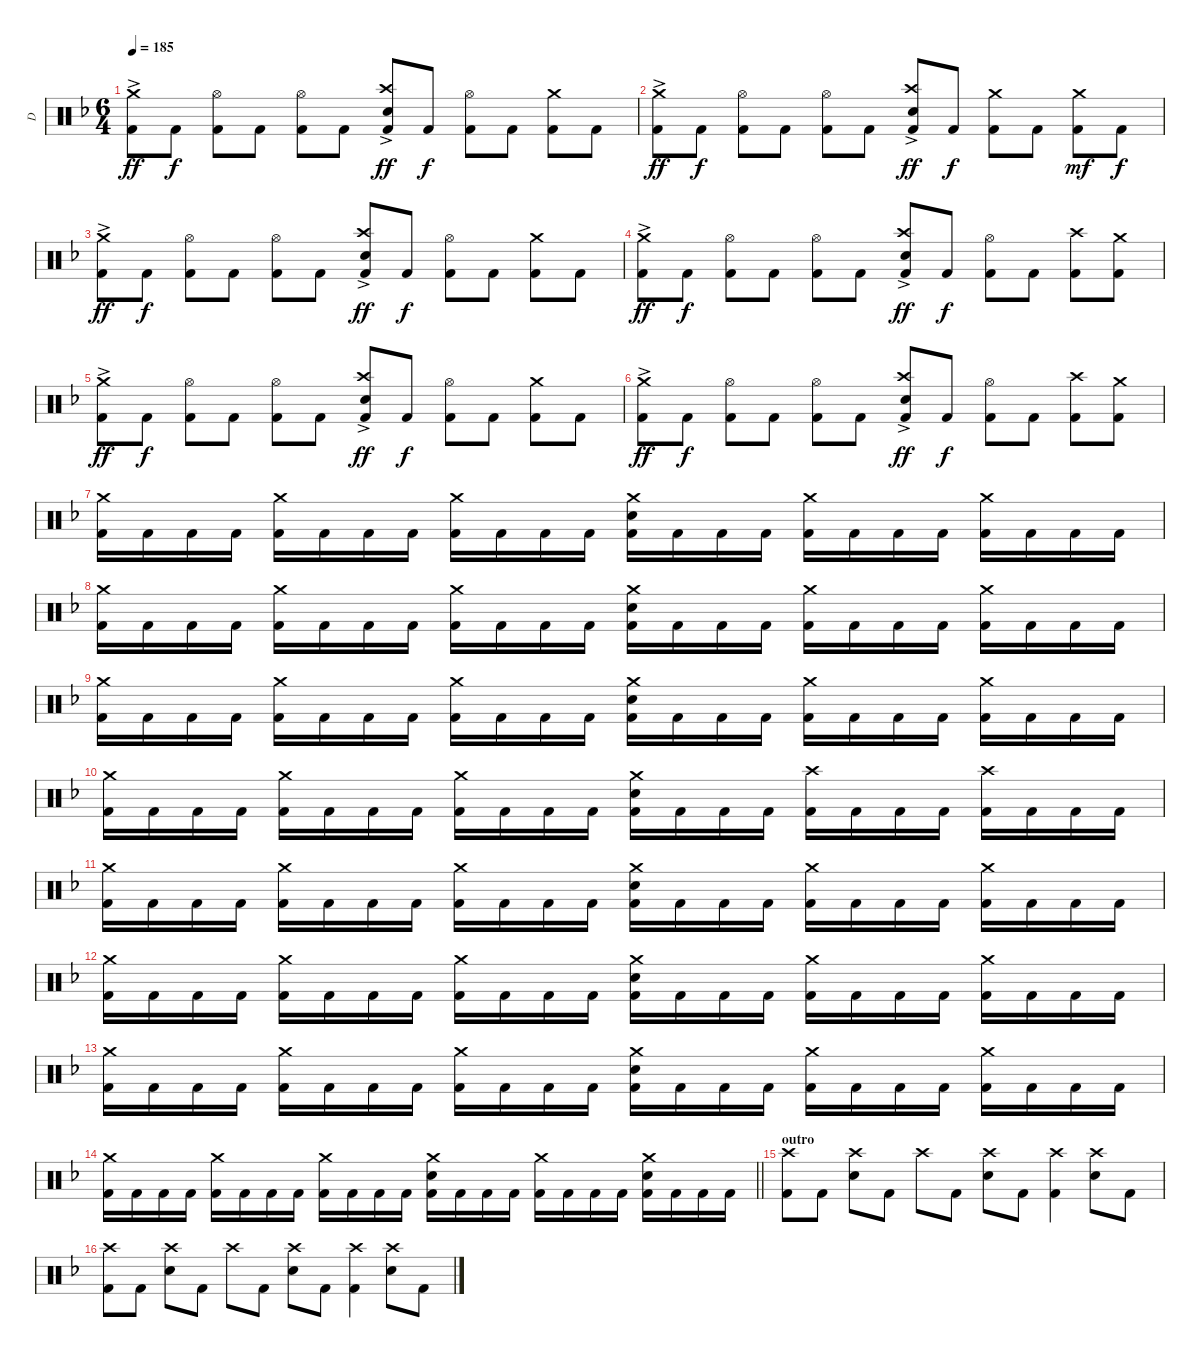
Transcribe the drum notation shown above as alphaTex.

\track ("D" "D") {instrument percussion}
\staff {score}
\articulation defaults
\ts (6 4)
\tempo 185
\clef neutral
\ks dminor
("Crash medium (hit)"{ac} "Kick (hit) 2").8{dy ff} "Kick (hit) 2".8{dy f} ("Hi-Hat (open)" "Kick (hit) 2").8 "Kick (hit) 2".8 ("Hi-Hat (open)" "Kick (hit) 2").8 "Kick (hit) 2".8 ("Crash high (hit)"{ac} "Snare (hit) 2" "Kick (hit) 2").8{dy ff} "Kick (hit) 2".8{dy f} ("Hi-Hat (open)" "Kick (hit) 2").8 "Kick (hit) 2".8 ("Crash medium (hit)" "Kick (hit) 2").8 "Kick (hit) 2".8 |
("Crash medium (hit)"{ac} "Kick (hit) 2").8{dy ff} "Kick (hit) 2".8{dy f} ("Hi-Hat (open)" "Kick (hit) 2").8 "Kick (hit) 2".8 ("Hi-Hat (open)" "Kick (hit) 2").8 "Kick (hit) 2".8 ("Crash high (hit)"{ac} "Snare (hit) 2" "Kick (hit) 2").8{dy ff} "Kick (hit) 2".8{dy f} ("Crash medium (hit)" "Kick (hit) 2").8 "Kick (hit) 2".8 ("Crash medium (hit)" "Kick (hit) 2").8{dy mf} "Kick (hit) 2".8{dy f} |
("Crash medium (hit)"{ac} "Kick (hit) 2").8{dy ff} "Kick (hit) 2".8{dy f} ("Hi-Hat (open)" "Kick (hit) 2").8 "Kick (hit) 2".8 ("Hi-Hat (open)" "Kick (hit) 2").8 "Kick (hit) 2".8 ("Crash high (hit)"{ac} "Snare (hit) 2" "Kick (hit) 2").8{dy ff} "Kick (hit) 2".8{dy f} ("Hi-Hat (open)" "Kick (hit) 2").8 "Kick (hit) 2".8 ("Crash medium (hit)" "Kick (hit) 2").8 "Kick (hit) 2".8 |
("Crash medium (hit)"{ac} "Kick (hit) 2").8{dy ff} "Kick (hit) 2".8{dy f} ("Hi-Hat (open)" "Kick (hit) 2").8 "Kick (hit) 2".8 ("Hi-Hat (open)" "Kick (hit) 2").8 "Kick (hit) 2".8 ("Crash high (hit)"{ac} "Snare (hit) 2" "Kick (hit) 2").8{dy ff} "Kick (hit) 2".8{dy f} ("Hi-Hat (open)" "Kick (hit) 2").8 "Kick (hit) 2".8 ("Crash high (hit)" "Kick (hit) 2").8 ("Crash medium (hit)" "Kick (hit) 2").8 |
("Crash medium (hit)"{ac} "Kick (hit) 2").8{dy ff} "Kick (hit) 2".8{dy f} ("Hi-Hat (open)" "Kick (hit) 2").8 "Kick (hit) 2".8 ("Hi-Hat (open)" "Kick (hit) 2").8 "Kick (hit) 2".8 ("Crash high (hit)"{ac} "Snare (hit) 2" "Kick (hit) 2").8{dy ff} "Kick (hit) 2".8{dy f} ("Hi-Hat (open)" "Kick (hit) 2").8 "Kick (hit) 2".8 ("Crash medium (hit)" "Kick (hit) 2").8 "Kick (hit) 2".8 |
("Crash medium (hit)"{ac} "Kick (hit) 2").8{dy ff} "Kick (hit) 2".8{dy f} ("Hi-Hat (open)" "Kick (hit) 2").8 "Kick (hit) 2".8 ("Hi-Hat (open)" "Kick (hit) 2").8 "Kick (hit) 2".8 ("Crash high (hit)"{ac} "Snare (hit) 2" "Kick (hit) 2").8{dy ff} "Kick (hit) 2".8{dy f} ("Hi-Hat (open)" "Kick (hit) 2").8 "Kick (hit) 2".8 ("Crash high (hit)" "Kick (hit) 2").8 ("Crash medium (hit)" "Kick (hit) 2").8 |
("Crash medium (hit)" "Kick (hit) 2").16 "Kick (hit) 2".16 "Kick (hit) 2".16 "Kick (hit) 2".16 ("Crash medium (hit)" "Kick (hit) 2").16 "Kick (hit) 2".16 "Kick (hit) 2".16 "Kick (hit) 2".16 ("Crash medium (hit)" "Kick (hit) 2").16 "Kick (hit) 2".16 "Kick (hit) 2".16 "Kick (hit) 2".16 ("Crash medium (hit)" "Snare (hit) 2" "Kick (hit) 2").16 "Kick (hit) 2".16 "Kick (hit) 2".16 "Kick (hit) 2".16 ("Crash medium (hit)" "Kick (hit) 2").16 "Kick (hit) 2".16 "Kick (hit) 2".16 "Kick (hit) 2".16 ("Crash medium (hit)" "Kick (hit) 2").16 "Kick (hit) 2".16 "Kick (hit) 2".16 "Kick (hit) 2".16 |
("Crash medium (hit)" "Kick (hit) 2").16 "Kick (hit) 2".16 "Kick (hit) 2".16 "Kick (hit) 2".16 ("Crash medium (hit)" "Kick (hit) 2").16 "Kick (hit) 2".16 "Kick (hit) 2".16 "Kick (hit) 2".16 ("Crash medium (hit)" "Kick (hit) 2").16 "Kick (hit) 2".16 "Kick (hit) 2".16 "Kick (hit) 2".16 ("Crash medium (hit)" "Snare (hit) 2" "Kick (hit) 2").16 "Kick (hit) 2".16 "Kick (hit) 2".16 "Kick (hit) 2".16 ("Crash medium (hit)" "Kick (hit) 2").16 "Kick (hit) 2".16 "Kick (hit) 2".16 "Kick (hit) 2".16 ("Crash medium (hit)" "Kick (hit) 2").16 "Kick (hit) 2".16 "Kick (hit) 2".16 "Kick (hit) 2".16 |
("Crash medium (hit)" "Kick (hit) 2").16 "Kick (hit) 2".16 "Kick (hit) 2".16 "Kick (hit) 2".16 ("Crash medium (hit)" "Kick (hit) 2").16 "Kick (hit) 2".16 "Kick (hit) 2".16 "Kick (hit) 2".16 ("Crash medium (hit)" "Kick (hit) 2").16 "Kick (hit) 2".16 "Kick (hit) 2".16 "Kick (hit) 2".16 ("Crash medium (hit)" "Snare (hit) 2" "Kick (hit) 2").16 "Kick (hit) 2".16 "Kick (hit) 2".16 "Kick (hit) 2".16 ("Crash medium (hit)" "Kick (hit) 2").16 "Kick (hit) 2".16 "Kick (hit) 2".16 "Kick (hit) 2".16 ("Crash medium (hit)" "Kick (hit) 2").16 "Kick (hit) 2".16 "Kick (hit) 2".16 "Kick (hit) 2".16 |
("Crash medium (hit)" "Kick (hit) 2").16 "Kick (hit) 2".16 "Kick (hit) 2".16 "Kick (hit) 2".16 ("Crash medium (hit)" "Kick (hit) 2").16 "Kick (hit) 2".16 "Kick (hit) 2".16 "Kick (hit) 2".16 ("Crash medium (hit)" "Kick (hit) 2").16 "Kick (hit) 2".16 "Kick (hit) 2".16 "Kick (hit) 2".16 ("Crash medium (hit)" "Snare (hit) 2" "Kick (hit) 2").16 "Kick (hit) 2".16 "Kick (hit) 2".16 "Kick (hit) 2".16 ("Crash high (hit)" "Kick (hit) 2").16 "Kick (hit) 2".16 "Kick (hit) 2".16 "Kick (hit) 2".16 ("Crash high (hit)" "Kick (hit) 2").16 "Kick (hit) 2".16 "Kick (hit) 2".16 "Kick (hit) 2".16 |
("Crash medium (hit)" "Kick (hit) 2").16 "Kick (hit) 2".16 "Kick (hit) 2".16 "Kick (hit) 2".16 ("Crash medium (hit)" "Kick (hit) 2").16 "Kick (hit) 2".16 "Kick (hit) 2".16 "Kick (hit) 2".16 ("Crash medium (hit)" "Kick (hit) 2").16 "Kick (hit) 2".16 "Kick (hit) 2".16 "Kick (hit) 2".16 ("Crash medium (hit)" "Snare (hit) 2" "Kick (hit) 2").16 "Kick (hit) 2".16 "Kick (hit) 2".16 "Kick (hit) 2".16 ("Crash medium (hit)" "Kick (hit) 2").16 "Kick (hit) 2".16 "Kick (hit) 2".16 "Kick (hit) 2".16 ("Crash medium (hit)" "Kick (hit) 2").16 "Kick (hit) 2".16 "Kick (hit) 2".16 "Kick (hit) 2".16 |
("Crash medium (hit)" "Kick (hit) 2").16 "Kick (hit) 2".16 "Kick (hit) 2".16 "Kick (hit) 2".16 ("Crash medium (hit)" "Kick (hit) 2").16 "Kick (hit) 2".16 "Kick (hit) 2".16 "Kick (hit) 2".16 ("Crash medium (hit)" "Kick (hit) 2").16 "Kick (hit) 2".16 "Kick (hit) 2".16 "Kick (hit) 2".16 ("Crash medium (hit)" "Snare (hit) 2" "Kick (hit) 2").16 "Kick (hit) 2".16 "Kick (hit) 2".16 "Kick (hit) 2".16 ("Crash medium (hit)" "Kick (hit) 2").16 "Kick (hit) 2".16 "Kick (hit) 2".16 "Kick (hit) 2".16 ("Crash medium (hit)" "Kick (hit) 2").16 "Kick (hit) 2".16 "Kick (hit) 2".16 "Kick (hit) 2".16 |
("Crash medium (hit)" "Kick (hit) 2").16 "Kick (hit) 2".16 "Kick (hit) 2".16 "Kick (hit) 2".16 ("Crash medium (hit)" "Kick (hit) 2").16 "Kick (hit) 2".16 "Kick (hit) 2".16 "Kick (hit) 2".16 ("Crash medium (hit)" "Kick (hit) 2").16 "Kick (hit) 2".16 "Kick (hit) 2".16 "Kick (hit) 2".16 ("Crash medium (hit)" "Snare (hit) 2" "Kick (hit) 2").16 "Kick (hit) 2".16 "Kick (hit) 2".16 "Kick (hit) 2".16 ("Crash medium (hit)" "Kick (hit) 2").16 "Kick (hit) 2".16 "Kick (hit) 2".16 "Kick (hit) 2".16 ("Crash medium (hit)" "Kick (hit) 2").16 "Kick (hit) 2".16 "Kick (hit) 2".16 "Kick (hit) 2".16 |
\barLineRight lightlight
("Crash medium (hit)" "Kick (hit) 2").16 "Kick (hit) 2".16 "Kick (hit) 2".16 "Kick (hit) 2".16 ("Crash medium (hit)" "Kick (hit) 2").16 "Kick (hit) 2".16 "Kick (hit) 2".16 "Kick (hit) 2".16 ("Crash medium (hit)" "Kick (hit) 2").16 "Kick (hit) 2".16 "Kick (hit) 2".16 "Kick (hit) 2".16 ("Crash medium (hit)" "Snare (hit) 2" "Kick (hit) 2").16 "Kick (hit) 2".16 "Kick (hit) 2".16 "Kick (hit) 2".16 ("Crash medium (hit)" "Kick (hit) 2").16 "Kick (hit) 2".16 "Kick (hit) 2".16 "Kick (hit) 2".16 ("Crash medium (hit)" "Snare (hit) 2" "Kick (hit) 2").16 "Kick (hit) 2".16 "Kick (hit) 2".16 "Kick (hit) 2".16 |
\section ("" "outro")
("Crash high (hit)" "Kick (hit) 2").8 "Kick (hit) 2".8 ("Crash high (hit)" "Snare (hit) 2").8 "Kick (hit) 2".8 "Crash high (hit)".8 "Kick (hit) 2".8 ("Crash high (hit)" "Snare (hit) 2").8 "Kick (hit) 2".8 ("Crash high (hit)" "Kick (hit) 2").4 ("Crash high (hit)" "Snare (hit) 2").8 "Kick (hit) 2".8 |
("Crash high (hit)" "Kick (hit) 2").8 "Kick (hit) 2".8 ("Crash high (hit)" "Snare (hit) 2").8 "Kick (hit) 2".8 "Crash high (hit)".8 "Kick (hit) 2".8 ("Crash high (hit)" "Snare (hit) 2").8 "Kick (hit) 2".8 ("Crash high (hit)" "Kick (hit) 2").4 ("Crash high (hit)" "Snare (hit) 2").8 "Kick (hit) 2".8
